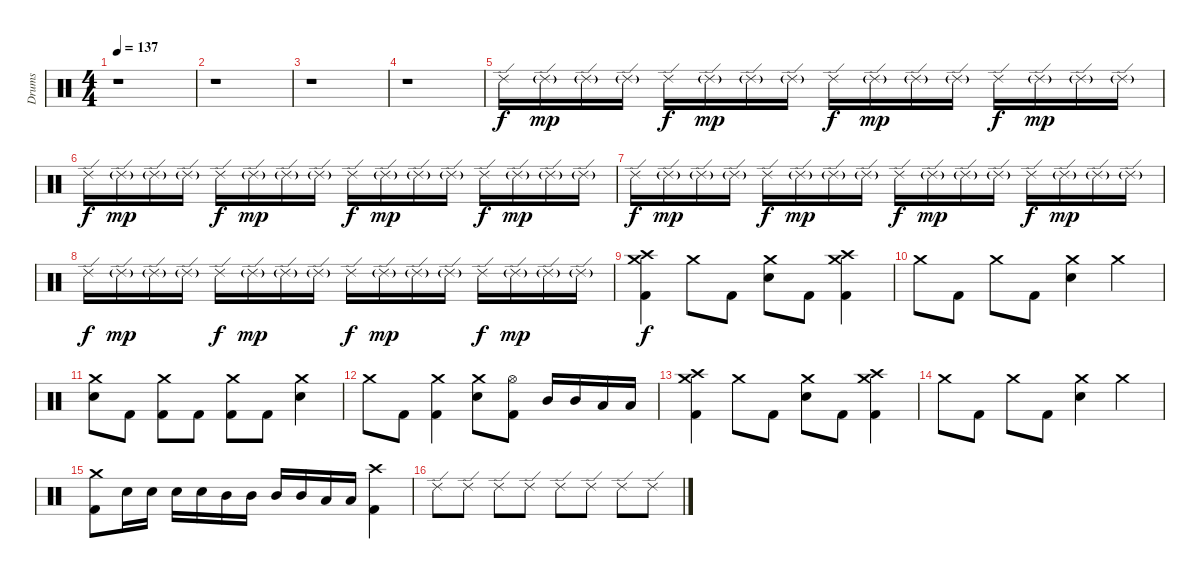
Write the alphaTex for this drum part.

\track ("Drums" "Drums") {instrument percussion}
\staff {score}
\articulation defaults
\ts (4 4)
\tempo 137
\clef neutral
\ks c
r.1{dy f} |
r.1 |
r.1 |
r.1 |
"Ride (edge) 2".16 "Ride (edge) 2"{g}.16{dy mp} "Ride (edge) 2"{g}.16 "Ride (edge) 2"{g}.16 "Ride (edge) 2".16{dy f} "Ride (edge) 2"{g}.16{dy mp} "Ride (edge) 2"{g}.16 "Ride (edge) 2"{g}.16 "Ride (edge) 2".16{dy f} "Ride (edge) 2"{g}.16{dy mp} "Ride (edge) 2"{g}.16 "Ride (edge) 2"{g}.16 "Ride (edge) 2".16{dy f} "Ride (edge) 2"{g}.16{dy mp} "Ride (edge) 2"{g}.16 "Ride (edge) 2"{g}.16 |
"Ride (edge) 2".16{dy f} "Ride (edge) 2"{g}.16{dy mp} "Ride (edge) 2"{g}.16 "Ride (edge) 2"{g}.16 "Ride (edge) 2".16{dy f} "Ride (edge) 2"{g}.16{dy mp} "Ride (edge) 2"{g}.16 "Ride (edge) 2"{g}.16 "Ride (edge) 2".16{dy f} "Ride (edge) 2"{g}.16{dy mp} "Ride (edge) 2"{g}.16 "Ride (edge) 2"{g}.16 "Ride (edge) 2".16{dy f} "Ride (edge) 2"{g}.16{dy mp} "Ride (edge) 2"{g}.16 "Ride (edge) 2"{g}.16 |
"Ride (edge) 2".16{dy f} "Ride (edge) 2"{g}.16{dy mp} "Ride (edge) 2"{g}.16 "Ride (edge) 2"{g}.16 "Ride (edge) 2".16{dy f} "Ride (edge) 2"{g}.16{dy mp} "Ride (edge) 2"{g}.16 "Ride (edge) 2"{g}.16 "Ride (edge) 2".16{dy f} "Ride (edge) 2"{g}.16{dy mp} "Ride (edge) 2"{g}.16 "Ride (edge) 2"{g}.16 "Ride (edge) 2".16{dy f} "Ride (edge) 2"{g}.16{dy mp} "Ride (edge) 2"{g}.16 "Ride (edge) 2"{g}.16 |
"Ride (edge) 2".16{dy f} "Ride (edge) 2"{g}.16{dy mp} "Ride (edge) 2"{g}.16 "Ride (edge) 2"{g}.16 "Ride (edge) 2".16{dy f} "Ride (edge) 2"{g}.16{dy mp} "Ride (edge) 2"{g}.16 "Ride (edge) 2"{g}.16 "Ride (edge) 2".16{dy f} "Ride (edge) 2"{g}.16{dy mp} "Ride (edge) 2"{g}.16 "Ride (edge) 2"{g}.16 "Ride (edge) 2".16{dy f} "Ride (edge) 2"{g}.16{dy mp} "Ride (edge) 2"{g}.16 "Ride (edge) 2"{g}.16 |
("Crash medium (hit)" "Crash high (hit)" "Kick (hit) 2").4{dy f} "Crash medium (hit)".8 "Kick (hit) 2".8 ("Crash medium (hit)" "Electric Snare (hit)").8 "Kick (hit) 2".8 ("Crash medium (hit)" "Crash high (hit)" "Kick (hit) 2").4 |
"Crash medium (hit)".8 "Kick (hit) 2".8 "Crash medium (hit)".8 "Kick (hit) 2".8 ("Crash medium (hit)" "Electric Snare (hit)").4 "Crash medium (hit)".4 |
("Crash medium (hit)" "Electric Snare (hit)").8 "Kick (hit) 2".8 ("Crash medium (hit)" "Kick (hit) 2").8 "Kick (hit) 2".8 ("Crash medium (hit)" "Kick (hit) 2").8 "Kick (hit) 2".8 ("Crash medium (hit)" "Electric Snare (hit)").4 |
"Crash medium (hit)".8 "Kick (hit) 2".8 ("Crash medium (hit)" "Kick (hit) 2").4 ("Crash medium (hit)" "Electric Snare (hit)").8 ("Hi-Hat (open)" "Kick (hit) 2").8 "Mid Tom (hit)".16 "Mid Tom (hit)".16 "Low Tom (hit)".16 "Low Tom (hit)".16 |
("Crash medium (hit)" "Crash high (hit)" "Kick (hit) 2").4 "Crash medium (hit)".8 "Kick (hit) 2".8 ("Crash medium (hit)" "Electric Snare (hit)").8 "Kick (hit) 2".8 ("Crash medium (hit)" "Crash high (hit)" "Kick (hit) 2").4 |
"Crash medium (hit)".8 "Kick (hit) 2".8 "Crash medium (hit)".8 "Kick (hit) 2".8 ("Crash medium (hit)" "Electric Snare (hit)").4 "Crash medium (hit)".4 |
("Crash medium (hit)" "Kick (hit) 2").8 "Electric Snare (hit)".16 "Electric Snare (hit)".16 "Electric Snare (hit)".16 "Electric Snare (hit)".16 "Mid Tom (hit)".16 "Mid Tom (hit)".16 "Mid Tom (hit)".16 "Mid Tom (hit)".16 "Low Tom (hit)".16 "Low Tom (hit)".16 ("Crash high (hit)" "Kick (hit) 2").4 |
"Ride (edge) 2".8 "Ride (edge) 2".8 "Ride (edge) 2".8 "Ride (edge) 2".8 "Ride (edge) 2".8 "Ride (edge) 2".8 "Ride (edge) 2".8 "Ride (edge) 2".8
